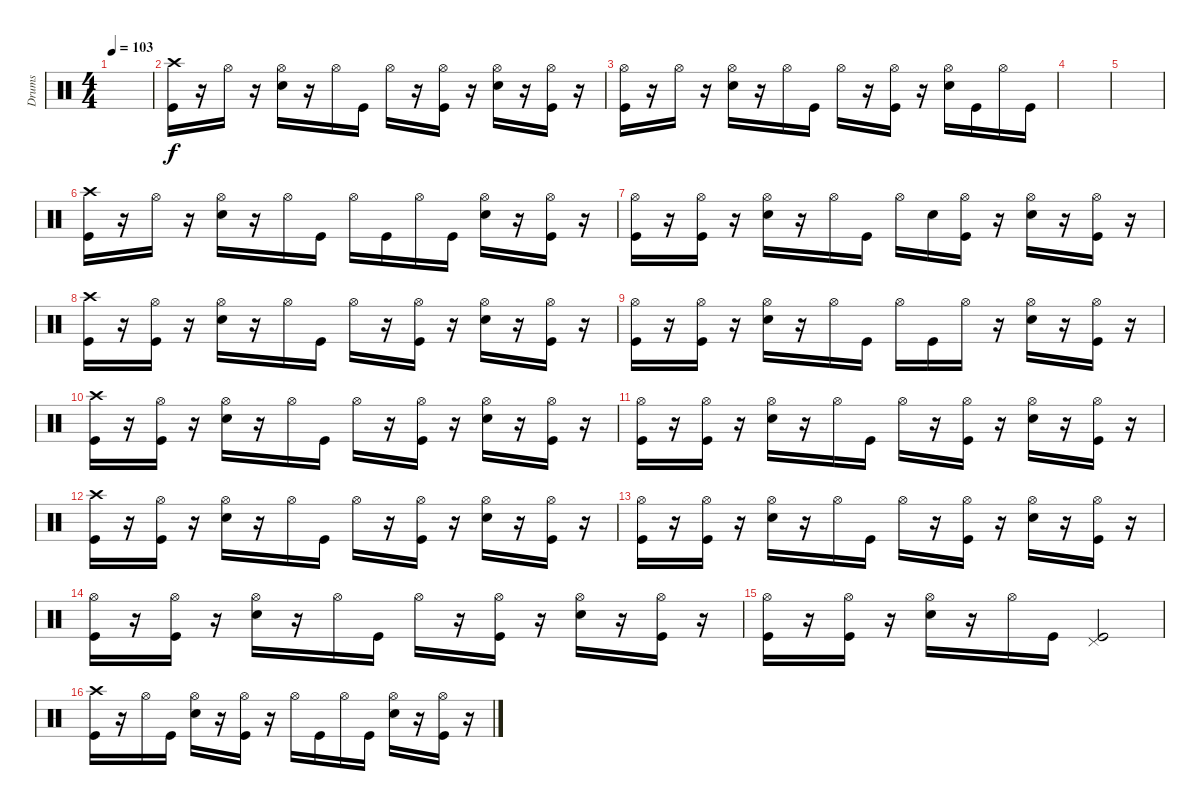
\track ("Drums" "Drums") {instrument percussion}
\staff {score}
\articulation defaults
\ts (4 4)
\tempo 103
\clef neutral
\ks c
|
("Crash high (hit)" "Kick (hit)").16 r.16 "Hi-Hat (open)".16 r.16 ("Hi-Hat (open)" "Electric Snare (hit)").16 r.16 "Hi-Hat (open)".16 "Kick (hit)".16 "Hi-Hat (open)".16 r.16 ("Hi-Hat (open)" "Kick (hit)").16 r.16 ("Hi-Hat (open)" "Electric Snare (hit)").16 r.16 ("Hi-Hat (open)" "Kick (hit)").16 r.16 |
("Hi-Hat (open)" "Kick (hit)").16 r.16 "Hi-Hat (open)".16 r.16 ("Hi-Hat (open)" "Electric Snare (hit)").16 r.16 "Hi-Hat (open)".16 "Kick (hit)".16 "Hi-Hat (open)".16 r.16 ("Hi-Hat (open)" "Kick (hit)").16 r.16 ("Hi-Hat (open)" "Electric Snare (hit)").16 "Kick (hit)".16 "Hi-Hat (open)".16 "Kick (hit)".16 |
|
|
("Crash high (hit)" "Kick (hit)").16 r.16 "Hi-Hat (open)".16 r.16 ("Hi-Hat (open)" "Electric Snare (hit)").16 r.16 "Hi-Hat (open)".16 "Kick (hit)".16 "Hi-Hat (open)".16 "Kick (hit)".16 "Hi-Hat (open)".16 "Kick (hit)".16 ("Hi-Hat (open)" "Electric Snare (hit)").16 r.16 ("Hi-Hat (open)" "Kick (hit)").16 r.16 |
("Hi-Hat (open)" "Kick (hit)").16 r.16 ("Hi-Hat (open)" "Kick (hit)").16 r.16 ("Hi-Hat (open)" "Electric Snare (hit)").16 r.16 "Hi-Hat (open)".16 "Kick (hit)".16 "Hi-Hat (open)".16 "Electric Snare (hit)".16 ("Hi-Hat (open)" "Kick (hit)").16 r.16 ("Hi-Hat (open)" "Electric Snare (hit)").16 r.16 ("Hi-Hat (open)" "Kick (hit)").16 r.16 |
("Crash high (hit)" "Kick (hit)").16 r.16 ("Hi-Hat (open)" "Kick (hit)").16 r.16 ("Hi-Hat (open)" "Electric Snare (hit)").16 r.16 "Hi-Hat (open)".16 "Kick (hit)".16 "Hi-Hat (open)".16 r.16 ("Hi-Hat (open)" "Kick (hit)").16 r.16 ("Hi-Hat (open)" "Electric Snare (hit)").16 r.16 ("Hi-Hat (open)" "Kick (hit)").16 r.16 |
("Hi-Hat (open)" "Kick (hit)").16 r.16 ("Hi-Hat (open)" "Kick (hit)").16 r.16 ("Hi-Hat (open)" "Electric Snare (hit)").16 r.16 "Hi-Hat (open)".16 "Kick (hit)".16 "Hi-Hat (open)".16 "Kick (hit)".16 "Hi-Hat (open)".16 r.16 ("Hi-Hat (open)" "Electric Snare (hit)").16 r.16 ("Hi-Hat (open)" "Kick (hit)").16 r.16 |
("Crash high (hit)" "Kick (hit)").16 r.16 ("Hi-Hat (open)" "Kick (hit)").16 r.16 ("Hi-Hat (open)" "Electric Snare (hit)").16 r.16 "Hi-Hat (open)".16 "Kick (hit)".16 "Hi-Hat (open)".16 r.16 ("Hi-Hat (open)" "Kick (hit)").16 r.16 ("Hi-Hat (open)" "Electric Snare (hit)").16 r.16 ("Hi-Hat (open)" "Kick (hit)").16 r.16 |
("Hi-Hat (open)" "Kick (hit)").16 r.16 ("Hi-Hat (open)" "Kick (hit)").16 r.16 ("Hi-Hat (open)" "Electric Snare (hit)").16 r.16 "Hi-Hat (open)".16 "Kick (hit)".16 "Hi-Hat (open)".16 r.16 ("Hi-Hat (open)" "Kick (hit)").16 r.16 ("Hi-Hat (open)" "Electric Snare (hit)").16 r.16 ("Hi-Hat (open)" "Kick (hit)").16 r.16 |
("Crash high (hit)" "Kick (hit)").16 r.16 ("Hi-Hat (open)" "Kick (hit)").16 r.16 ("Hi-Hat (open)" "Electric Snare (hit)").16 r.16 "Hi-Hat (open)".16 "Kick (hit)".16 "Hi-Hat (open)".16 r.16 ("Hi-Hat (open)" "Kick (hit)").16 r.16 ("Hi-Hat (open)" "Electric Snare (hit)").16 r.16 ("Hi-Hat (open)" "Kick (hit)").16 r.16 |
("Hi-Hat (open)" "Kick (hit)").16 r.16 ("Hi-Hat (open)" "Kick (hit)").16 r.16 ("Hi-Hat (open)" "Electric Snare (hit)").16 r.16 "Hi-Hat (open)".16 "Kick (hit)".16 "Hi-Hat (open)".16 r.16 ("Hi-Hat (open)" "Kick (hit)").16 r.16 ("Hi-Hat (open)" "Electric Snare (hit)").16 r.16 ("Hi-Hat (open)" "Kick (hit)").16 r.16 |
("Hi-Hat (open)" "Kick (hit)").16 r.16 ("Hi-Hat (open)" "Kick (hit)").16 r.16 ("Hi-Hat (open)" "Electric Snare (hit)").16 r.16 "Hi-Hat (open)".16 "Kick (hit)".16 "Hi-Hat (open)".16 r.16 ("Hi-Hat (open)" "Kick (hit)").16 r.16 ("Hi-Hat (open)" "Electric Snare (hit)").16 r.16 ("Hi-Hat (open)" "Kick (hit)").16 r.16 |
("Hi-Hat (open)" "Kick (hit)").16 r.16 ("Hi-Hat (open)" "Kick (hit)").16 r.16 ("Hi-Hat (open)" "Electric Snare (hit)").16 r.16 "Hi-Hat (open)".16 "Kick (hit)".16 ("Pedal Hi-Hat (hit)" "Kick (hit)").2 |
("Crash high (hit)" "Kick (hit)").16 r.16 "Hi-Hat (open)".16 "Kick (hit)".16 ("Hi-Hat (open)" "Electric Snare (hit)").16 r.16 ("Hi-Hat (open)" "Kick (hit)").16 r.16 "Hi-Hat (open)".16 "Kick (hit)".16 "Hi-Hat (open)".16 "Kick (hit)".16 ("Hi-Hat (open)" "Electric Snare (hit)").16 r.16 ("Hi-Hat (open)" "Kick (hit)").16 r.16
